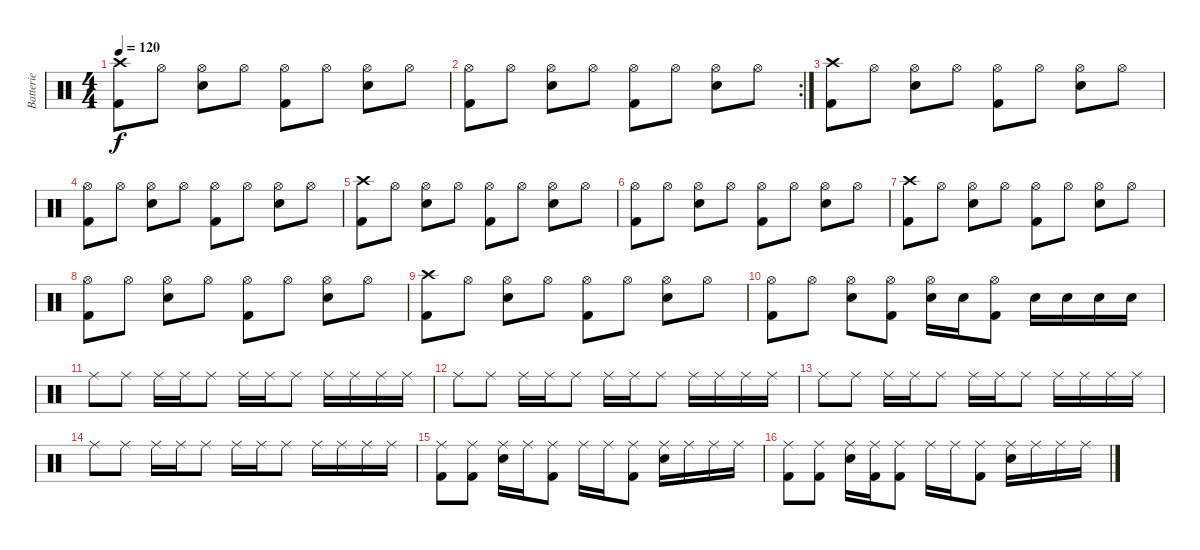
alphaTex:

\track ("Batterie" "Batterie") {instrument percussion}
\staff {score}
\articulation defaults
\ts (4 4)
\tempo 120
\clef neutral
\ks c
("Crash high (hit)" "Kick (hit) 2").8{dy f} "Hi-Hat (open)".8 ("Hi-Hat (open)" "Snare (hit) 2").8 "Hi-Hat (open)".8 ("Hi-Hat (open)" "Kick (hit) 2").8 "Hi-Hat (open)".8 ("Hi-Hat (open)" "Snare (hit) 2").8 "Hi-Hat (open)".8 |
\rc 2
("Hi-Hat (open)" "Kick (hit) 2").8 "Hi-Hat (open)".8 ("Hi-Hat (open)" "Snare (hit) 2").8 "Hi-Hat (open)".8 ("Hi-Hat (open)" "Kick (hit) 2").8 "Hi-Hat (open)".8 ("Hi-Hat (open)" "Snare (hit) 2").8 "Hi-Hat (open)".8 |
("Crash high (hit)" "Kick (hit) 2").8 "Hi-Hat (open)".8 ("Hi-Hat (open)" "Snare (hit) 2").8 "Hi-Hat (open)".8 ("Hi-Hat (open)" "Kick (hit) 2").8 "Hi-Hat (open)".8 ("Hi-Hat (open)" "Snare (hit) 2").8 "Hi-Hat (open)".8 |
("Hi-Hat (open)" "Kick (hit) 2").8 "Hi-Hat (open)".8 ("Hi-Hat (open)" "Snare (hit) 2").8 "Hi-Hat (open)".8 ("Hi-Hat (open)" "Kick (hit) 2").8 "Hi-Hat (open)".8 ("Hi-Hat (open)" "Snare (hit) 2").8 "Hi-Hat (open)".8 |
("Crash high (hit)" "Kick (hit) 2").8 "Hi-Hat (open)".8 ("Hi-Hat (open)" "Snare (hit) 2").8 "Hi-Hat (open)".8 ("Hi-Hat (open)" "Kick (hit) 2").8 "Hi-Hat (open)".8 ("Hi-Hat (open)" "Snare (hit) 2").8 "Hi-Hat (open)".8 |
("Hi-Hat (open)" "Kick (hit) 2").8 "Hi-Hat (open)".8 ("Hi-Hat (open)" "Snare (hit) 2").8 "Hi-Hat (open)".8 ("Hi-Hat (open)" "Kick (hit) 2").8 "Hi-Hat (open)".8 ("Hi-Hat (open)" "Snare (hit) 2").8 "Hi-Hat (open)".8 |
("Crash high (hit)" "Kick (hit) 2").8 "Hi-Hat (open)".8 ("Hi-Hat (open)" "Snare (hit) 2").8 "Hi-Hat (open)".8 ("Hi-Hat (open)" "Kick (hit) 2").8 "Hi-Hat (open)".8 ("Hi-Hat (open)" "Snare (hit) 2").8 "Hi-Hat (open)".8 |
("Hi-Hat (open)" "Kick (hit) 2").8 "Hi-Hat (open)".8 ("Hi-Hat (open)" "Snare (hit) 2").8 "Hi-Hat (open)".8 ("Hi-Hat (open)" "Kick (hit) 2").8 "Hi-Hat (open)".8 ("Hi-Hat (open)" "Snare (hit) 2").8 "Hi-Hat (open)".8 |
("Crash high (hit)" "Kick (hit) 2").8 "Hi-Hat (open)".8 ("Hi-Hat (open)" "Snare (hit) 2").8 "Hi-Hat (open)".8 ("Hi-Hat (open)" "Kick (hit) 2").8 "Hi-Hat (open)".8 ("Hi-Hat (open)" "Snare (hit) 2").8 "Hi-Hat (open)".8 |
("Hi-Hat (open)" "Kick (hit) 2").8 "Hi-Hat (open)".8 ("Hi-Hat (open)" "Snare (hit) 2").8 ("Hi-Hat (open)" "Kick (hit) 2").8 ("Hi-Hat (open)" "Snare (hit) 2").16 "Snare (hit) 2".16 ("Hi-Hat (open)" "Kick (hit) 2").8 "Snare (hit) 2".16 "Snare (hit) 2".16 "Snare (hit) 2".16 "Snare (hit) 2".16 |
"Ride (middle)".8 "Ride (middle)".8 "Ride (middle)".16 "Ride (middle)".16 "Ride (middle)".8 "Ride (middle)".16 "Ride (middle)".16 "Ride (middle)".8 "Ride (middle)".16 "Ride (middle)".16 "Ride (middle)".16 "Ride (middle)".16 |
"Ride (middle)".8 "Ride (middle)".8 "Ride (middle)".16 "Ride (middle)".16 "Ride (middle)".8 "Ride (middle)".16 "Ride (middle)".16 "Ride (middle)".8 "Ride (middle)".16 "Ride (middle)".16 "Ride (middle)".16 "Ride (middle)".16 |
"Ride (middle)".8 "Ride (middle)".8 "Ride (middle)".16 "Ride (middle)".16 "Ride (middle)".8 "Ride (middle)".16 "Ride (middle)".16 "Ride (middle)".8 "Ride (middle)".16 "Ride (middle)".16 "Ride (middle)".16 "Ride (middle)".16 |
"Ride (middle)".8 "Ride (middle)".8 "Ride (middle)".16 "Ride (middle)".16 "Ride (middle)".8 "Ride (middle)".16 "Ride (middle)".16 "Ride (middle)".8 "Ride (middle)".16 "Ride (middle)".16 "Ride (middle)".16 "Ride (middle)".16 |
("Ride (middle)" "Kick (hit) 2").8 ("Ride (middle)" "Kick (hit) 2").8 ("Ride (middle)" "Snare (hit) 2").16 "Ride (middle)".16 ("Ride (middle)" "Kick (hit) 2").8 "Ride (middle)".16 "Ride (middle)".16 ("Ride (middle)" "Kick (hit) 2").8 ("Ride (middle)" "Snare (hit) 2").16 "Ride (middle)".16 "Ride (middle)".16 "Ride (middle)".16 |
("Ride (middle)" "Kick (hit) 2").8 ("Ride (middle)" "Kick (hit) 2").8 ("Ride (middle)" "Snare (hit) 2").16 ("Ride (middle)" "Kick (hit) 2").16 ("Ride (middle)" "Kick (hit) 2").8 "Ride (middle)".16 "Ride (middle)".16 ("Ride (middle)" "Kick (hit) 2").8 ("Ride (middle)" "Snare (hit) 2").16 "Ride (middle)".16 "Ride (middle)".16 "Ride (middle)".16
